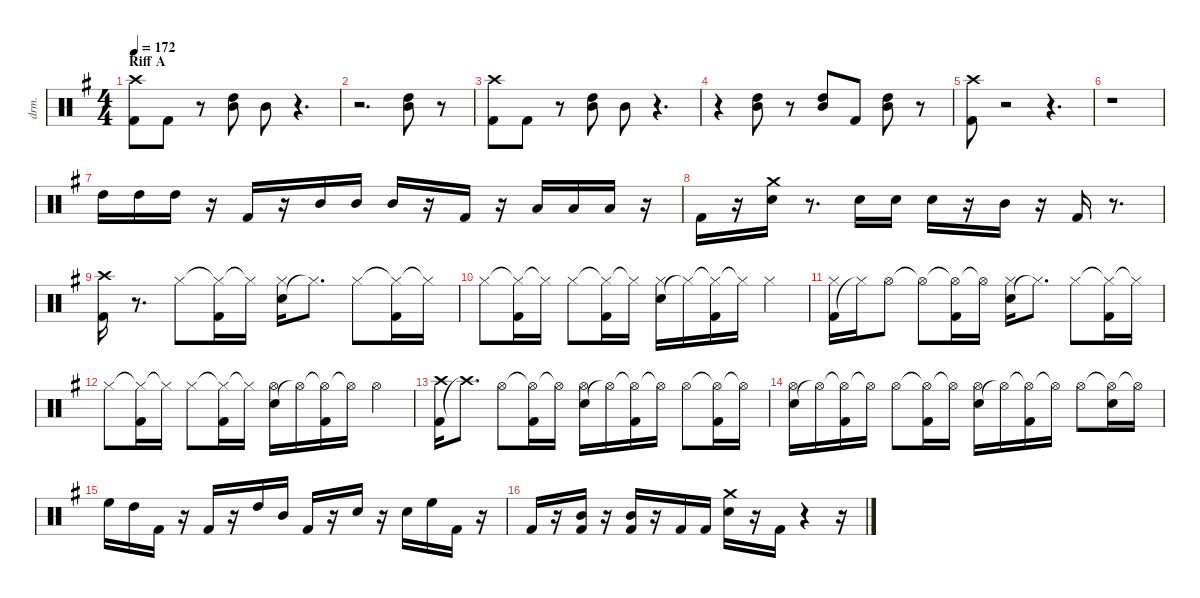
\defaultSystemsLayout 4
\hideDynamics
\bracketExtendMode nobrackets
\otherSystemsTrackNameOrientation horizontal
\track ("Shinya" "drm.") {instrument percussion}
\staff {score}
\articulation defaults
\ts (4 4)
\beaming (8 2 2 2 2)
\section ("" "Riff A")
\tempo 172
\clef neutral
\ks eminor
("Kick (hit) 2"{acc forcenatural} "Crash high (hit)"{acc #}).8{dy fff beam Down} "Kick (hit) 2"{acc forcenatural}.8{beam Down} r.8{beam Down} ("Mid Tom (hit)"{acc forcenatural} "High Tom (hit)"{acc forcenatural}).8{beam Down} "Mid Tom (hit)"{acc forcenatural}.8{dy ff beam Down} r.4{d beam Down} |
r.2{d beam Down} ("Mid Tom (hit)"{acc forcenatural} "High Tom (hit)"{acc forcenatural}).8{dy fff beam Down} r.8{beam Down} |
("Kick (hit) 2"{acc forcenatural} "Crash high (hit)"{acc #}).8{beam Down} "Kick (hit) 2"{acc forcenatural}.8{beam Down} r.8{beam Down} ("Mid Tom (hit)"{acc forcenatural} "High Tom (hit)"{acc forcenatural}).8{beam Down} "Mid Tom (hit)"{acc forcenatural}.8{beam Down} r.4{d beam Down} |
r.4{beam Down} ("Mid Tom (hit)"{acc forcenatural} "High Tom (hit)"{acc forcenatural}).8{beam Down} r.8{beam Down} ("Mid Tom (hit)"{acc forcenatural} "High Tom (hit)"{acc forcenatural}).8{beam Up} "Kick (hit) 2"{acc forcenatural}.8{dy ff beam Up} ("Mid Tom (hit)"{acc forcenatural} "High Tom (hit)"{acc forcenatural}).8{dy fff beam Down} r.8{beam Down} |
("Kick (hit) 2"{acc forcenatural} "Crash high (hit)"{acc #}).8{beam Down} r.2{beam Down} r.4{d beam Down} |
r.1{beam Down} |
"High Tom (hit)"{acc forcenatural}.16{beam Down} "High Tom (hit)"{acc forcenatural}.16{beam Down} "High Tom (hit)"{acc forcenatural}.16{beam Down} r.16{beam Down} "Kick (hit) 2"{acc forcenatural}.16{beam Up} r.16{beam Up} "Mid Tom (hit)"{acc forcenatural}.16{beam Up} "Mid Tom (hit)"{acc forcenatural}.16{beam Up} "Mid Tom (hit)"{acc forcenatural}.16{beam Up} r.16{beam Up} "Kick (hit) 2"{acc forcenatural}.16{beam Up} r.16{beam Up} "Low Tom (hit)"{acc forcenatural}.16{beam Up} "Low Tom (hit)"{acc forcenatural}.16{dy ff beam Up} "Low Tom (hit)"{acc forcenatural}.16{dy fff beam Up} r.16{beam Up} |
"Kick (hit) 2"{acc forcenatural}.16{beam Down} r.16{beam Down} ("Snare (hit) 2"{acc forcenatural} "Crash medium (hit)"{acc forcenatural}).16{beam Down} r.8{d beam Down} "Snare (hit) 2"{acc forcenatural}.16{beam Down} "Snare (hit) 2"{acc forcenatural}.16{beam Down} "Snare (hit) 2"{acc forcenatural}.16{beam Down} r.16{beam Down} "Mid Tom (hit)"{acc forcenatural}.16{beam Down} r.16{beam Down} "Kick (hit) 2"{acc forcenatural}.16{beam Up} r.8{d beam Up} |
("Kick (hit) 2"{acc forcenatural} "Crash high (hit)"{acc #}).16{beam Down} r.8{d beam Down} "Hi-Hat (closed)"{acc #}.8{beam Down} ("Hi-Hat (closed)"{t acc #} "Kick (hit) 2"{acc forcenatural}).16{beam Down} "Hi-Hat (closed)"{t acc #}.16{beam Down} ("Snare (hit) 2"{acc forcenatural} "Hi-Hat (closed)"{acc #}).16{beam Down} "Hi-Hat (closed)"{t acc #}.8{d beam Down} "Hi-Hat (closed)"{acc #}.8{beam Down} ("Hi-Hat (closed)"{t acc #} "Kick (hit) 2"{acc forcenatural}).16{beam Down} "Hi-Hat (closed)"{t acc #}.16{beam Down} |
"Hi-Hat (closed)"{acc #}.8{beam Down} ("Hi-Hat (closed)"{t acc #} "Kick (hit) 2"{acc forcenatural}).16{beam Down} "Hi-Hat (closed)"{t acc #}.16{beam Down} "Hi-Hat (closed)"{acc #}.8{dy ff beam Down} ("Hi-Hat (closed)"{t acc #} "Kick (hit) 2"{acc forcenatural}).16{beam Down} "Hi-Hat (closed)"{t acc #}.16{beam Down} ("Snare (hit) 2"{acc forcenatural} "Hi-Hat (closed)"{acc #}).16{dy fff beam Down} "Hi-Hat (closed)"{t acc #}.16{beam Down} ("Hi-Hat (closed)"{t acc #} "Kick (hit) 2"{acc forcenatural}).16{beam Down} "Hi-Hat (closed)"{t acc #}.16{beam Down} "Hi-Hat (closed)"{acc #}.4{beam Down} |
("Kick (hit) 2"{acc forcenatural} "Hi-Hat (closed)"{acc #}).16{beam Down} "Hi-Hat (closed)"{t acc #}.16{beam Down} "Hi-Hat (open)"{acc #}.8{beam Down} "Hi-Hat (open)"{t acc #}.8{beam Down} ("Hi-Hat (open)"{t acc #} "Kick (hit) 2"{acc forcenatural}).16{beam Down} "Hi-Hat (open)"{t acc #}.16{beam Down} ("Snare (hit) 2"{acc forcenatural} "Hi-Hat (closed)"{acc #}).16{beam Down} "Hi-Hat (closed)"{t acc #}.8{d beam Down} "Hi-Hat (closed)"{acc #}.8{beam Down} ("Hi-Hat (closed)"{t acc #} "Kick (hit) 2"{acc forcenatural}).16{beam Down} "Hi-Hat (closed)"{t acc #}.16{beam Down} |
"Hi-Hat (closed)"{acc #}.8{beam Down} ("Hi-Hat (closed)"{t acc #} "Kick (hit) 2"{acc forcenatural}).16{beam Down} "Hi-Hat (closed)"{t acc #}.16{beam Down} "Hi-Hat (closed)"{acc #}.8{beam Down} ("Hi-Hat (closed)"{t acc #} "Kick (hit) 2"{acc forcenatural}).16{beam Down} "Hi-Hat (closed)"{t acc #}.16{beam Down} ("Snare (hit) 2"{acc forcenatural} "Hi-Hat (open)"{acc #}).16{beam Down} "Hi-Hat (open)"{t acc #}.16{beam Down} ("Hi-Hat (open)"{t acc #} "Kick (hit) 2"{acc forcenatural}).16{beam Down} "Hi-Hat (open)"{t acc #}.16{beam Down} "Hi-Hat (open)"{acc #}.4{beam Down} |
("Kick (hit) 2"{acc forcenatural} "Crash high (hit)"{acc #}).16{beam Down} "Crash high (hit)"{t acc #}.8{d beam Down} "Hi-Hat (open)"{acc #}.8{beam Down} ("Hi-Hat (open)"{t acc #} "Kick (hit) 2"{acc forcenatural}).16{beam Down} "Hi-Hat (open)"{t acc #}.16{beam Down} ("Snare (hit) 2"{acc forcenatural} "Hi-Hat (open)"{acc #}).16{beam Down} "Hi-Hat (open)"{t acc #}.16{beam Down} ("Hi-Hat (open)"{t acc #} "Kick (hit) 2"{acc forcenatural}).16{beam Down} "Hi-Hat (open)"{t acc #}.16{beam Down} "Hi-Hat (open)"{acc #}.8{beam Down} ("Hi-Hat (open)"{t acc #} "Kick (hit) 2"{acc forcenatural}).16{beam Down} "Hi-Hat (open)"{t acc #}.16{beam Down} |
("Snare (hit) 2"{acc forcenatural} "Hi-Hat (open)"{acc #}).16{beam Down} "Hi-Hat (open)"{t acc #}.16{beam Down} ("Hi-Hat (open)"{t acc #} "Kick (hit) 2"{acc forcenatural}).16{beam Down} "Hi-Hat (open)"{t acc #}.16{beam Down} "Hi-Hat (open)"{acc #}.8{beam Down} ("Hi-Hat (open)"{t acc #} "Kick (hit) 2"{acc forcenatural}).16{beam Down} "Hi-Hat (open)"{t acc #}.16{beam Down} ("Snare (hit) 2"{acc forcenatural} "Hi-Hat (open)"{acc #}).16{beam Down} "Hi-Hat (open)"{t acc #}.16{beam Down} ("Hi-Hat (open)"{t acc #} "Kick (hit) 2"{acc forcenatural}).16{beam Down} "Hi-Hat (open)"{t acc #}.16{beam Down} "Hi-Hat (open)"{acc #}.8{beam Down} ("Hi-Hat (open)"{t acc #} "Snare (hit) 2"{acc forcenatural}).16{beam Down} "Hi-Hat (open)"{t acc #}.16{beam Down} |
"High Floor Tom (hit)"{acc forcenatural}.16{beam Down} "High Tom (hit)"{acc forcenatural}.16{beam Down} "Kick (hit) 2"{acc forcenatural}.16{beam Down} r.16{beam Down} "Kick (hit) 2"{acc forcenatural}.16{beam Up} r.16{beam Up} "High Tom (hit)"{acc forcenatural}.16{beam Up} "Mid Tom (hit)"{acc forcenatural}.16{beam Up} "Kick (hit) 2"{acc forcenatural}.16{beam Up} r.16{beam Up} "Snare (hit) 2"{acc forcenatural}.16{beam Up} r.16{beam Up} "Snare (hit) 2"{acc forcenatural}.16{beam Down} "High Floor Tom (hit)"{acc forcenatural}.16{beam Down} "Kick (hit) 2"{acc forcenatural}.16{beam Down} r.16{beam Down} |
"Kick (hit) 2"{acc forcenatural}.16{beam Up} r.16{beam Up} ("Kick (hit) 2"{acc forcenatural} "Mid Tom (hit)"{acc forcenatural}).16{beam Up} r.16{beam Up} ("Kick (hit) 2"{acc forcenatural} "Mid Tom (hit)"{acc forcenatural}).16{beam Up} r.16{beam Up} "Kick (hit) 2"{acc forcenatural}.16{beam Up} "Kick (hit) 2"{acc forcenatural}.16{beam Up} ("Snare (hit) 2"{acc forcenatural} "Crash medium (hit)"{acc forcenatural}).16{beam Down} r.16{beam Down} "Kick (hit) 2"{acc forcenatural}.16{beam Down} r.4{beam Down} r.16{beam Down}
